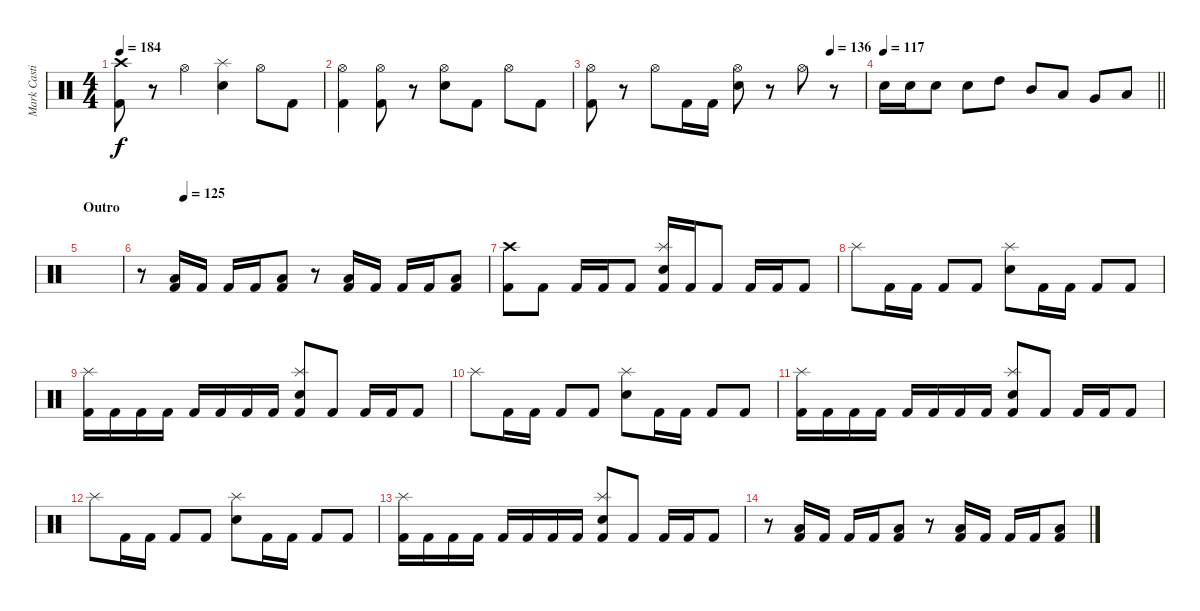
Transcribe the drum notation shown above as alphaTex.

\track ("Mark Castillo" "Mark Casti") {instrument percussion}
\staff {score}
\articulation defaults
\ts (4 4)
\tempo 184
\clef neutral
\ks c
("Crash high (hit)" "Kick (hit) 2").8{dy f} r.8 "Hi-Hat (open)".4 ("Splash (hit)" "Electric Snare (hit)").4 "Hi-Hat (open)".8 "Kick (hit) 2".8 |
("Hi-Hat (open)" "Kick (hit) 2").4 ("Hi-Hat (open)" "Kick (hit) 2").8 r.8 ("Hi-Hat (open)" "Electric Snare (hit)").8 "Kick (hit) 2".8 "Hi-Hat (open)".8 "Kick (hit) 2".8 |
\tempo (136 0.875)
("Hi-Hat (open)" "Kick (hit) 2").8 r.8 "Hi-Hat (open)".8 "Kick (hit) 2".16 "Kick (hit) 2".16 ("Hi-Hat (open)" "Electric Snare (hit)").8 r.8 "Hi-Hat (open)".8 r.8 |
\tempo 117
\barLineRight lightlight "Electric Snare (hit)".16 "Electric Snare (hit)".16 "Electric Snare (hit)".8 "Electric Snare (hit)".8 "High Tom (hit)".8 "Mid Tom (hit)".8 "Low Tom (hit)".8 "Very Low Tom (hit)".8 "Low Floor Tom (hit)".8
|
\section ("" "Outro")
|
\tempo (125 0.125)
r.8 ("Low Floor Tom (hit)" "Kick (hit) 2").16 "Kick (hit) 2".16 "Kick (hit) 2".16 "Kick (hit) 2".16 ("Low Floor Tom (hit)" "Kick (hit) 2").8 r.8 ("Low Floor Tom (hit)" "Kick (hit) 2").16 "Kick (hit) 2".16 "Kick (hit) 2".16 "Kick (hit) 2".16 ("Low Floor Tom (hit)" "Kick (hit) 2").8 |
("Crash high (hit)" "Kick (hit) 2").8 "Kick (hit) 2".8 "Kick (hit) 2".16 "Kick (hit) 2".16 "Kick (hit) 2".8 ("Splash (hit)" "Electric Snare (hit)" "Kick (hit) 2").16 "Kick (hit) 2".16 "Kick (hit) 2".8 "Kick (hit) 2".16 "Kick (hit) 2".16 "Kick (hit) 2".8 |
"Splash (hit)".8 "Kick (hit) 2".16 "Kick (hit) 2".16 "Kick (hit) 2".8 "Kick (hit) 2".8 ("Splash (hit)" "Electric Snare (hit)").8 "Kick (hit) 2".16 "Kick (hit) 2".16 "Kick (hit) 2".8 "Kick (hit) 2".8 |
("Splash (hit)" "Kick (hit) 2").16 "Kick (hit) 2".16 "Kick (hit) 2".16 "Kick (hit) 2".16 "Kick (hit) 2".16 "Kick (hit) 2".16 "Kick (hit) 2".16 "Kick (hit) 2".16 ("Splash (hit)" "Electric Snare (hit)" "Kick (hit) 2").8 "Kick (hit) 2".8 "Kick (hit) 2".16 "Kick (hit) 2".16 "Kick (hit) 2".8 |
"Splash (hit)".8 "Kick (hit) 2".16 "Kick (hit) 2".16 "Kick (hit) 2".8 "Kick (hit) 2".8 ("Splash (hit)" "Electric Snare (hit)").8 "Kick (hit) 2".16 "Kick (hit) 2".16 "Kick (hit) 2".8 "Kick (hit) 2".8 |
("Splash (hit)" "Kick (hit) 2").16 "Kick (hit) 2".16 "Kick (hit) 2".16 "Kick (hit) 2".16 "Kick (hit) 2".16 "Kick (hit) 2".16 "Kick (hit) 2".16 "Kick (hit) 2".16 ("Splash (hit)" "Electric Snare (hit)" "Kick (hit) 2").8 "Kick (hit) 2".8 "Kick (hit) 2".16 "Kick (hit) 2".16 "Kick (hit) 2".8 |
"Splash (hit)".8 "Kick (hit) 2".16 "Kick (hit) 2".16 "Kick (hit) 2".8 "Kick (hit) 2".8 ("Splash (hit)" "Electric Snare (hit)").8 "Kick (hit) 2".16 "Kick (hit) 2".16 "Kick (hit) 2".8 "Kick (hit) 2".8 |
("Splash (hit)" "Kick (hit) 2").16 "Kick (hit) 2".16 "Kick (hit) 2".16 "Kick (hit) 2".16 "Kick (hit) 2".16 "Kick (hit) 2".16 "Kick (hit) 2".16 "Kick (hit) 2".16 ("Splash (hit)" "Electric Snare (hit)" "Kick (hit) 2").8 "Kick (hit) 2".8 "Kick (hit) 2".16 "Kick (hit) 2".16 "Kick (hit) 2".8 |
r.8 ("Low Floor Tom (hit)" "Kick (hit) 2").16 "Kick (hit) 2".16 "Kick (hit) 2".16 "Kick (hit) 2".16 ("Low Floor Tom (hit)" "Kick (hit) 2").8 r.8 ("Low Floor Tom (hit)" "Kick (hit) 2").16 "Kick (hit) 2".16 "Kick (hit) 2".16 "Kick (hit) 2".16 ("Low Floor Tom (hit)" "Kick (hit) 2").8
